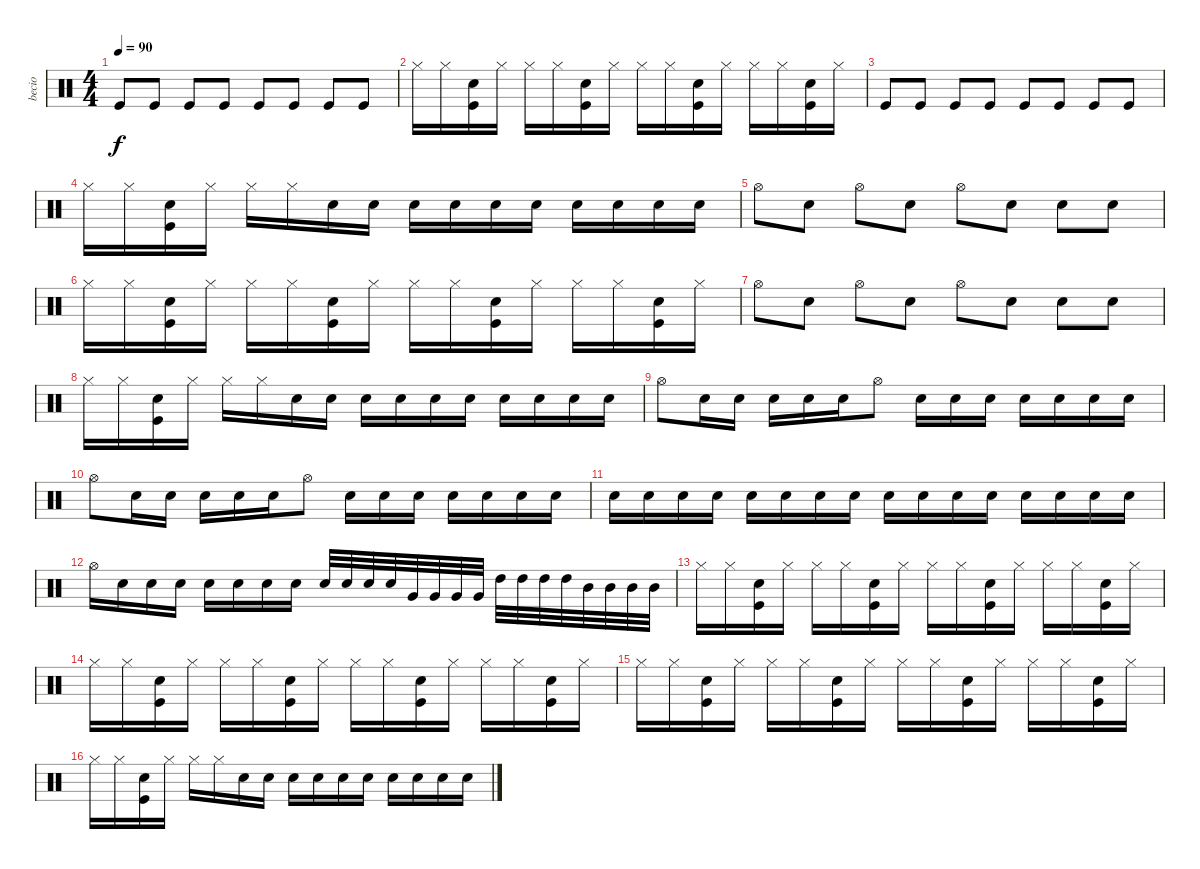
\track ("becio" "becio") {instrument percussion}
\staff {score}
\articulation defaults
\ts (4 4)
\tempo 90
\clef neutral
\ks c "Kick (hit)".8{dy f} "Kick (hit)".8 "Kick (hit)".8 "Kick (hit)".8 "Kick (hit)".8 "Kick (hit)".8 "Kick (hit)".8 "Kick (hit)".8
|
"Hi-Hat (closed)".16 "Hi-Hat (closed)".16 ("Electric Snare (hit)" "Kick (hit)").16 "Hi-Hat (closed)".16 "Hi-Hat (closed)".16 "Hi-Hat (closed)".16 ("Electric Snare (hit)" "Kick (hit)").16 "Hi-Hat (closed)".16 "Hi-Hat (closed)".16 "Hi-Hat (closed)".16 ("Electric Snare (hit)" "Kick (hit)").16 "Hi-Hat (closed)".16 "Hi-Hat (closed)".16 "Hi-Hat (closed)".16 ("Electric Snare (hit)" "Kick (hit)").16 "Hi-Hat (closed)".16 |
"Kick (hit)".8 "Kick (hit)".8 "Kick (hit)".8 "Kick (hit)".8 "Kick (hit)".8 "Kick (hit)".8 "Kick (hit)".8 "Kick (hit)".8 |
"Hi-Hat (closed)".16 "Hi-Hat (closed)".16 ("Electric Snare (hit)" "Kick (hit)").16 "Hi-Hat (closed)".16 "Hi-Hat (closed)".16 "Hi-Hat (closed)".16 "Electric Snare (hit)".16 "Electric Snare (hit)".16 "Electric Snare (hit)".16 "Electric Snare (hit)".16 "Electric Snare (hit)".16 "Electric Snare (hit)".16 "Electric Snare (hit)".16 "Electric Snare (hit)".16 "Electric Snare (hit)".16 "Electric Snare (hit)".16 |
"Hi-Hat (open)".8 "Electric Snare (hit)".8 "Hi-Hat (open)".8 "Electric Snare (hit)".8 "Hi-Hat (open)".8 "Electric Snare (hit)".8 "Electric Snare (hit)".8 "Electric Snare (hit)".8 |
"Hi-Hat (closed)".16 "Hi-Hat (closed)".16 ("Electric Snare (hit)" "Kick (hit)").16 "Hi-Hat (closed)".16 "Hi-Hat (closed)".16 "Hi-Hat (closed)".16 ("Electric Snare (hit)" "Kick (hit)").16 "Hi-Hat (closed)".16 "Hi-Hat (closed)".16 "Hi-Hat (closed)".16 ("Electric Snare (hit)" "Kick (hit)").16 "Hi-Hat (closed)".16 "Hi-Hat (closed)".16 "Hi-Hat (closed)".16 ("Electric Snare (hit)" "Kick (hit)").16 "Hi-Hat (closed)".16 |
"Hi-Hat (open)".8 "Electric Snare (hit)".8 "Hi-Hat (open)".8 "Electric Snare (hit)".8 "Hi-Hat (open)".8 "Electric Snare (hit)".8 "Electric Snare (hit)".8 "Electric Snare (hit)".8 |
"Hi-Hat (closed)".16 "Hi-Hat (closed)".16 ("Electric Snare (hit)" "Kick (hit)").16 "Hi-Hat (closed)".16 "Hi-Hat (closed)".16 "Hi-Hat (closed)".16 "Electric Snare (hit)".16 "Electric Snare (hit)".16 "Electric Snare (hit)".16 "Electric Snare (hit)".16 "Electric Snare (hit)".16 "Electric Snare (hit)".16 "Electric Snare (hit)".16 "Electric Snare (hit)".16 "Electric Snare (hit)".16 "Electric Snare (hit)".16 |
"Hi-Hat (open)".8 "Electric Snare (hit)".16 "Electric Snare (hit)".16 "Electric Snare (hit)".16 "Electric Snare (hit)".16 "Electric Snare (hit)".16 "Hi-Hat (open)".8 "Electric Snare (hit)".16 "Electric Snare (hit)".16 "Electric Snare (hit)".16 "Electric Snare (hit)".16 "Electric Snare (hit)".16 "Electric Snare (hit)".16 "Electric Snare (hit)".16 |
"Hi-Hat (open)".8 "Electric Snare (hit)".16 "Electric Snare (hit)".16 "Electric Snare (hit)".16 "Electric Snare (hit)".16 "Electric Snare (hit)".16 "Hi-Hat (open)".8 "Electric Snare (hit)".16 "Electric Snare (hit)".16 "Electric Snare (hit)".16 "Electric Snare (hit)".16 "Electric Snare (hit)".16 "Electric Snare (hit)".16 "Electric Snare (hit)".16 |
"Electric Snare (hit)".16 "Electric Snare (hit)".16 "Electric Snare (hit)".16 "Electric Snare (hit)".16 "Electric Snare (hit)".16 "Electric Snare (hit)".16 "Electric Snare (hit)".16 "Electric Snare (hit)".16 "Electric Snare (hit)".16 "Electric Snare (hit)".16 "Electric Snare (hit)".16 "Electric Snare (hit)".16 "Electric Snare (hit)".16 "Electric Snare (hit)".16 "Electric Snare (hit)".16 "Electric Snare (hit)".16 |
"Hi-Hat (open)".16 "Electric Snare (hit)".16 "Electric Snare (hit)".16 "Electric Snare (hit)".16 "Electric Snare (hit)".16 "Electric Snare (hit)".16 "Electric Snare (hit)".16 "Electric Snare (hit)".16 "Electric Snare (hit)".32 "Electric Snare (hit)".32 "Electric Snare (hit)".32 "Electric Snare (hit)".32 "Very Low Tom (hit)".32 "Very Low Tom (hit)".32 "Very Low Tom (hit)".32 "Very Low Tom (hit)".32 "High Tom (hit)".32 "High Tom (hit)".32 "High Tom (hit)".32 "High Tom (hit)".32 "Mid Tom (hit)".32 "Mid Tom (hit)".32 "Mid Tom (hit)".32 "Mid Tom (hit)".32 |
"Hi-Hat (closed)".16 "Hi-Hat (closed)".16 ("Electric Snare (hit)" "Kick (hit)").16 "Hi-Hat (closed)".16 "Hi-Hat (closed)".16 "Hi-Hat (closed)".16 ("Electric Snare (hit)" "Kick (hit)").16 "Hi-Hat (closed)".16 "Hi-Hat (closed)".16 "Hi-Hat (closed)".16 ("Electric Snare (hit)" "Kick (hit)").16 "Hi-Hat (closed)".16 "Hi-Hat (closed)".16 "Hi-Hat (closed)".16 ("Electric Snare (hit)" "Kick (hit)").16 "Hi-Hat (closed)".16 |
"Hi-Hat (closed)".16 "Hi-Hat (closed)".16 ("Electric Snare (hit)" "Kick (hit)").16 "Hi-Hat (closed)".16 "Hi-Hat (closed)".16 "Hi-Hat (closed)".16 ("Electric Snare (hit)" "Kick (hit)").16 "Hi-Hat (closed)".16 "Hi-Hat (closed)".16 "Hi-Hat (closed)".16 ("Electric Snare (hit)" "Kick (hit)").16 "Hi-Hat (closed)".16 "Hi-Hat (closed)".16 "Hi-Hat (closed)".16 ("Electric Snare (hit)" "Kick (hit)").16 "Hi-Hat (closed)".16 |
"Hi-Hat (closed)".16 "Hi-Hat (closed)".16 ("Electric Snare (hit)" "Kick (hit)").16 "Hi-Hat (closed)".16 "Hi-Hat (closed)".16 "Hi-Hat (closed)".16 ("Electric Snare (hit)" "Kick (hit)").16 "Hi-Hat (closed)".16 "Hi-Hat (closed)".16 "Hi-Hat (closed)".16 ("Electric Snare (hit)" "Kick (hit)").16 "Hi-Hat (closed)".16 "Hi-Hat (closed)".16 "Hi-Hat (closed)".16 ("Electric Snare (hit)" "Kick (hit)").16 "Hi-Hat (closed)".16 |
"Hi-Hat (closed)".16 "Hi-Hat (closed)".16 ("Electric Snare (hit)" "Kick (hit)").16 "Hi-Hat (closed)".16 "Hi-Hat (closed)".16 "Hi-Hat (closed)".16 "Electric Snare (hit)".16 "Electric Snare (hit)".16 "Electric Snare (hit)".16 "Electric Snare (hit)".16 "Electric Snare (hit)".16 "Electric Snare (hit)".16 "Electric Snare (hit)".16 "Electric Snare (hit)".16 "Electric Snare (hit)".16 "Electric Snare (hit)".16
